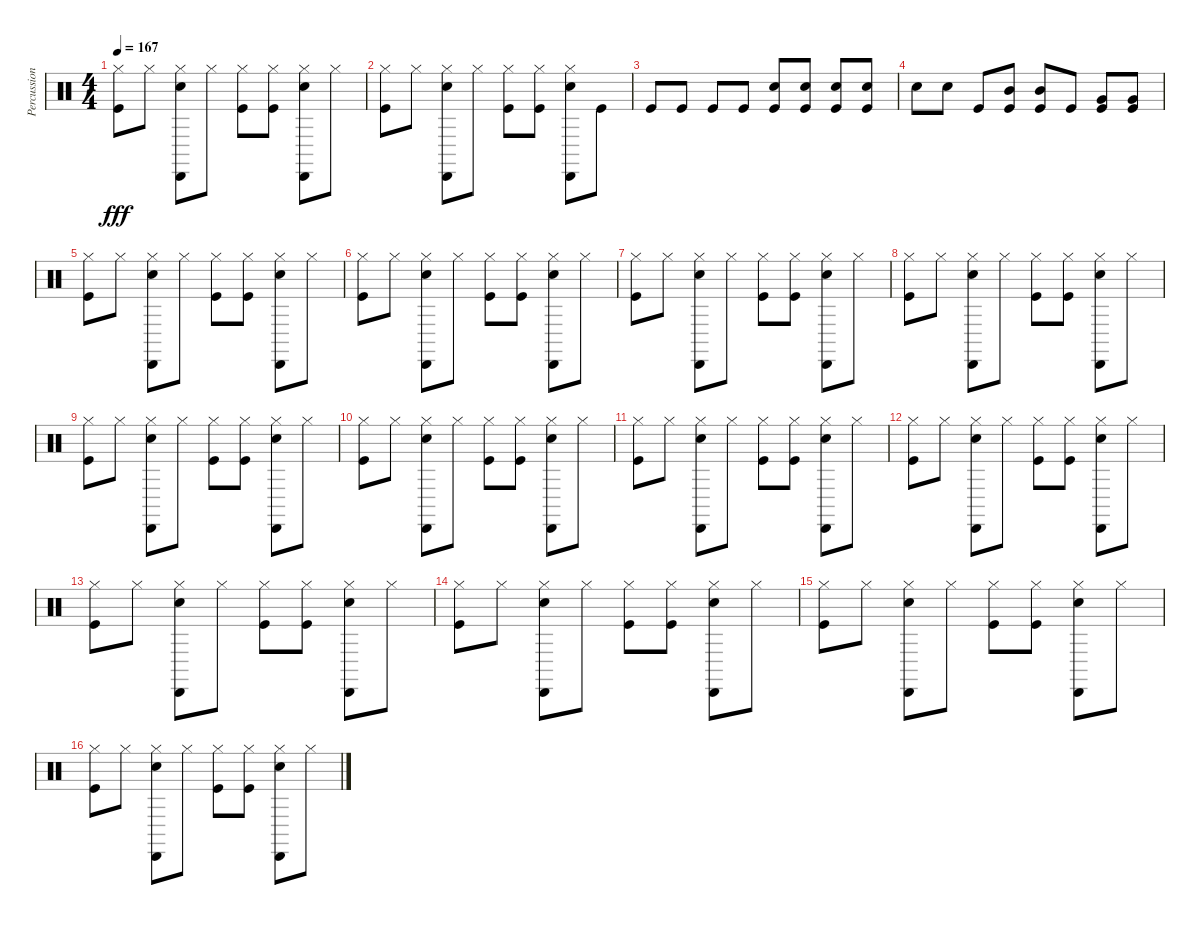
\track ("Percussion" "Percussion") {instrument percussion}
\staff {score}
\articulation defaults
\ts (4 4)
\tempo 167
\clef neutral
\ks c
("Hi-Hat (closed)" "Kick (hit)").8{dy fff} "Hi-Hat (closed)".8 ("Hi-Hat (closed)" "Cabasa (hit)" "Snare (hit) 2").8 "Hi-Hat (closed)".8 ("Hi-Hat (closed)" "Kick (hit)").8 ("Hi-Hat (closed)" "Kick (hit)").8 ("Hi-Hat (closed)" "Cabasa (hit)" "Snare (hit) 2").8 "Hi-Hat (closed)".8 |
("Hi-Hat (closed)" "Kick (hit)").8 "Hi-Hat (closed)".8 ("Hi-Hat (closed)" "Cabasa (hit)" "Snare (hit) 2").8 "Hi-Hat (closed)".8 ("Hi-Hat (closed)" "Kick (hit)").8 ("Hi-Hat (closed)" "Kick (hit)").8 ("Hi-Hat (closed)" "Cabasa (hit)" "Snare (hit) 2").8 "Kick (hit)".8 |
"Kick (hit)".8 "Kick (hit)".8 "Kick (hit)".8 "Kick (hit)".8 ("Snare (hit) 2" "Kick (hit)").8 ("Snare (hit) 2" "Kick (hit)").8 ("Snare (hit) 2" "Kick (hit)").8 ("Snare (hit) 2" "Kick (hit)").8 |
"Snare (hit) 2".8 "Snare (hit) 2".8 "Kick (hit)".8 ("Mid Tom (hit)" "Kick (hit)").8 ("Mid Tom (hit)" "Kick (hit)").8 "Kick (hit)".8 ("Very Low Tom (hit)" "Kick (hit)").8 ("Very Low Tom (hit)" "Kick (hit)").8 |
("Hi-Hat (closed)" "Kick (hit)").8 "Hi-Hat (closed)".8 ("Hi-Hat (closed)" "Cabasa (hit)" "Snare (hit) 2").8 "Hi-Hat (closed)".8 ("Hi-Hat (closed)" "Kick (hit)").8 ("Hi-Hat (closed)" "Kick (hit)").8 ("Hi-Hat (closed)" "Cabasa (hit)" "Snare (hit) 2").8 "Hi-Hat (closed)".8 |
("Hi-Hat (closed)" "Kick (hit)").8 "Hi-Hat (closed)".8 ("Hi-Hat (closed)" "Cabasa (hit)" "Snare (hit) 2").8 "Hi-Hat (closed)".8 ("Hi-Hat (closed)" "Kick (hit)").8 ("Hi-Hat (closed)" "Kick (hit)").8 ("Hi-Hat (closed)" "Cabasa (hit)" "Snare (hit) 2").8 "Hi-Hat (closed)".8 |
("Hi-Hat (closed)" "Kick (hit)").8 "Hi-Hat (closed)".8 ("Hi-Hat (closed)" "Cabasa (hit)" "Snare (hit) 2").8 "Hi-Hat (closed)".8 ("Hi-Hat (closed)" "Kick (hit)").8 ("Hi-Hat (closed)" "Kick (hit)").8 ("Hi-Hat (closed)" "Cabasa (hit)" "Snare (hit) 2").8 "Hi-Hat (closed)".8 |
("Hi-Hat (closed)" "Kick (hit)").8 "Hi-Hat (closed)".8 ("Hi-Hat (closed)" "Cabasa (hit)" "Snare (hit) 2").8 "Hi-Hat (closed)".8 ("Hi-Hat (closed)" "Kick (hit)").8 ("Hi-Hat (closed)" "Kick (hit)").8 ("Hi-Hat (closed)" "Cabasa (hit)" "Snare (hit) 2").8 "Hi-Hat (closed)".8 |
("Hi-Hat (closed)" "Kick (hit)").8 "Hi-Hat (closed)".8 ("Hi-Hat (closed)" "Cabasa (hit)" "Snare (hit) 2").8 "Hi-Hat (closed)".8 ("Hi-Hat (closed)" "Kick (hit)").8 ("Hi-Hat (closed)" "Kick (hit)").8 ("Hi-Hat (closed)" "Cabasa (hit)" "Snare (hit) 2").8 "Hi-Hat (closed)".8 |
("Hi-Hat (closed)" "Kick (hit)").8 "Hi-Hat (closed)".8 ("Hi-Hat (closed)" "Cabasa (hit)" "Snare (hit) 2").8 "Hi-Hat (closed)".8 ("Hi-Hat (closed)" "Kick (hit)").8 ("Hi-Hat (closed)" "Kick (hit)").8 ("Hi-Hat (closed)" "Cabasa (hit)" "Snare (hit) 2").8 "Hi-Hat (closed)".8 |
("Hi-Hat (closed)" "Kick (hit)").8 "Hi-Hat (closed)".8 ("Hi-Hat (closed)" "Cabasa (hit)" "Snare (hit) 2").8 "Hi-Hat (closed)".8 ("Hi-Hat (closed)" "Kick (hit)").8 ("Hi-Hat (closed)" "Kick (hit)").8 ("Hi-Hat (closed)" "Cabasa (hit)" "Snare (hit) 2").8 "Hi-Hat (closed)".8 |
("Hi-Hat (closed)" "Kick (hit)").8 "Hi-Hat (closed)".8 ("Hi-Hat (closed)" "Cabasa (hit)" "Snare (hit) 2").8 "Hi-Hat (closed)".8 ("Hi-Hat (closed)" "Kick (hit)").8 ("Hi-Hat (closed)" "Kick (hit)").8 ("Hi-Hat (closed)" "Cabasa (hit)" "Snare (hit) 2").8 "Hi-Hat (closed)".8 |
("Hi-Hat (closed)" "Kick (hit)").8 "Hi-Hat (closed)".8 ("Hi-Hat (closed)" "Cabasa (hit)" "Snare (hit) 2").8 "Hi-Hat (closed)".8 ("Hi-Hat (closed)" "Kick (hit)").8 ("Hi-Hat (closed)" "Kick (hit)").8 ("Hi-Hat (closed)" "Cabasa (hit)" "Snare (hit) 2").8 "Hi-Hat (closed)".8 |
("Hi-Hat (closed)" "Kick (hit)").8 "Hi-Hat (closed)".8 ("Hi-Hat (closed)" "Cabasa (hit)" "Snare (hit) 2").8 "Hi-Hat (closed)".8 ("Hi-Hat (closed)" "Kick (hit)").8 ("Hi-Hat (closed)" "Kick (hit)").8 ("Hi-Hat (closed)" "Cabasa (hit)" "Snare (hit) 2").8 "Hi-Hat (closed)".8 |
("Hi-Hat (closed)" "Kick (hit)").8 "Hi-Hat (closed)".8 ("Hi-Hat (closed)" "Cabasa (hit)" "Snare (hit) 2").8 "Hi-Hat (closed)".8 ("Hi-Hat (closed)" "Kick (hit)").8 ("Hi-Hat (closed)" "Kick (hit)").8 ("Hi-Hat (closed)" "Cabasa (hit)" "Snare (hit) 2").8 "Hi-Hat (closed)".8 |
("Hi-Hat (closed)" "Kick (hit)").8 "Hi-Hat (closed)".8 ("Hi-Hat (closed)" "Cabasa (hit)" "Snare (hit) 2").8 "Hi-Hat (closed)".8 ("Hi-Hat (closed)" "Kick (hit)").8 ("Hi-Hat (closed)" "Kick (hit)").8 ("Hi-Hat (closed)" "Cabasa (hit)" "Snare (hit) 2").8 "Hi-Hat (closed)".8
